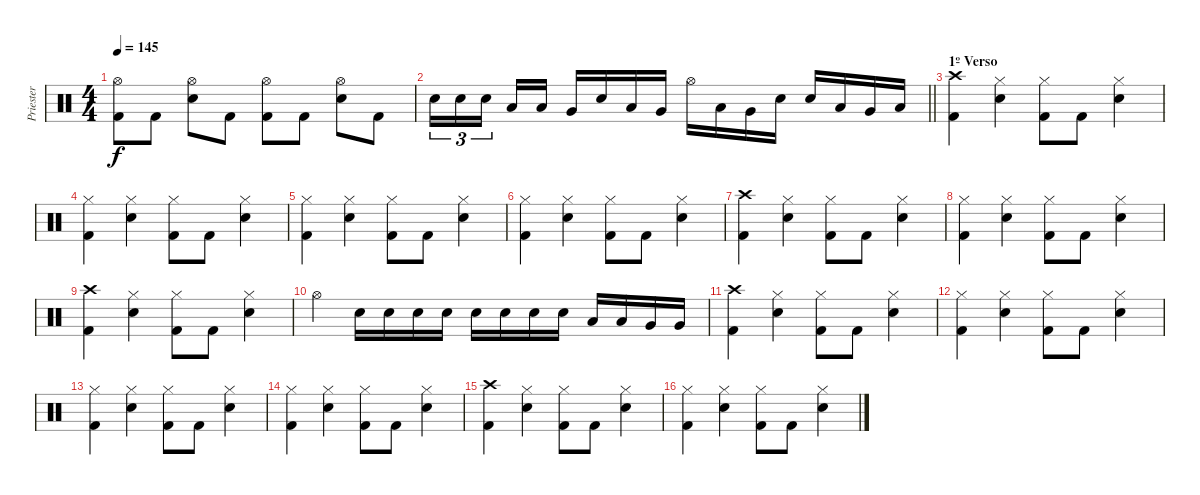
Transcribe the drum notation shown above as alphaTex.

\track ("Priester" "Priester") {instrument percussion}
\staff {score}
\articulation defaults
\ts (4 4)
\tempo 145
\clef neutral
\ks c
("Hi-Hat (open)" "Kick (hit) 2").8{dy f} "Kick (hit) 2".8 ("Hi-Hat (open)" "Electric Snare (hit)").8 "Kick (hit) 2".8 ("Hi-Hat (open)" "Kick (hit) 2").8 "Kick (hit) 2".8 ("Hi-Hat (open)" "Electric Snare (hit)").8 "Kick (hit) 2".8 |
\barLineRight lightlight "Electric Snare (hit)".16{tu (3 2)} "Electric Snare (hit)".16{tu (3 2)} "Electric Snare (hit)".16{tu (3 2) beam splitsecondary} "Low Tom (hit)".16 "Low Tom (hit)".16 "Very Low Tom (hit)".16 "Electric Snare (hit)".16 "Low Tom (hit)".16 "Very Low Tom (hit)".16 "Hi-Hat (open)".16 "Low Tom (hit)".16 "Very Low Tom (hit)".16 "Electric Snare (hit)".16 "Electric Snare (hit)".16 "Low Tom (hit)".16 "Very Low Tom (hit)".16 "Low Floor Tom (hit)".16
|
\section ("" "1º Verso")
("Crash high (hit)" "Kick (hit) 2").4 ("Hi-Hat (closed)" "Electric Snare (hit)").4 ("Hi-Hat (closed)" "Kick (hit) 2").8 "Kick (hit) 2".8 ("Hi-Hat (closed)" "Electric Snare (hit)").4 |
("Hi-Hat (closed)" "Kick (hit) 2").4 ("Hi-Hat (closed)" "Electric Snare (hit)").4 ("Hi-Hat (closed)" "Kick (hit) 2").8 "Kick (hit) 2".8 ("Hi-Hat (closed)" "Electric Snare (hit)").4 |
("Hi-Hat (closed)" "Kick (hit) 2").4 ("Hi-Hat (closed)" "Electric Snare (hit)").4 ("Hi-Hat (closed)" "Kick (hit) 2").8 "Kick (hit) 2".8 ("Hi-Hat (closed)" "Electric Snare (hit)").4 |
("Hi-Hat (closed)" "Kick (hit) 2").4 ("Hi-Hat (closed)" "Electric Snare (hit)").4 ("Hi-Hat (closed)" "Kick (hit) 2").8 "Kick (hit) 2".8 ("Hi-Hat (closed)" "Electric Snare (hit)").4 |
("Crash high (hit)" "Kick (hit) 2").4 ("Hi-Hat (closed)" "Electric Snare (hit)").4 ("Hi-Hat (closed)" "Kick (hit) 2").8 "Kick (hit) 2".8 ("Hi-Hat (closed)" "Electric Snare (hit)").4 |
("Hi-Hat (closed)" "Kick (hit) 2").4 ("Hi-Hat (closed)" "Electric Snare (hit)").4 ("Hi-Hat (closed)" "Kick (hit) 2").8 "Kick (hit) 2".8 ("Hi-Hat (closed)" "Electric Snare (hit)").4 |
("Crash high (hit)" "Kick (hit) 2").4 ("Hi-Hat (closed)" "Electric Snare (hit)").4 ("Hi-Hat (closed)" "Kick (hit) 2").8 "Kick (hit) 2".8 ("Hi-Hat (closed)" "Electric Snare (hit)").4 |
"Hi-Hat (open)".4 "Electric Snare (hit)".16 "Electric Snare (hit)".16 "Electric Snare (hit)".16 "Electric Snare (hit)".16 "Electric Snare (hit)".16 "Electric Snare (hit)".16 "Electric Snare (hit)".16 "Electric Snare (hit)".16 "Low Tom (hit)".16 "Low Tom (hit)".16 "Very Low Tom (hit)".16 "Very Low Tom (hit)".16 |
("Crash high (hit)" "Kick (hit) 2").4 ("Hi-Hat (closed)" "Electric Snare (hit)").4 ("Hi-Hat (closed)" "Kick (hit) 2").8 "Kick (hit) 2".8 ("Hi-Hat (closed)" "Electric Snare (hit)").4 |
("Hi-Hat (closed)" "Kick (hit) 2").4 ("Hi-Hat (closed)" "Electric Snare (hit)").4 ("Hi-Hat (closed)" "Kick (hit) 2").8 "Kick (hit) 2".8 ("Hi-Hat (closed)" "Electric Snare (hit)").4 |
("Hi-Hat (closed)" "Kick (hit) 2").4 ("Hi-Hat (closed)" "Electric Snare (hit)").4 ("Hi-Hat (closed)" "Kick (hit) 2").8 "Kick (hit) 2".8 ("Hi-Hat (closed)" "Electric Snare (hit)").4 |
("Hi-Hat (closed)" "Kick (hit) 2").4 ("Hi-Hat (closed)" "Electric Snare (hit)").4 ("Hi-Hat (closed)" "Kick (hit) 2").8 "Kick (hit) 2".8 ("Hi-Hat (closed)" "Electric Snare (hit)").4 |
("Crash high (hit)" "Kick (hit) 2").4 ("Hi-Hat (closed)" "Electric Snare (hit)").4 ("Hi-Hat (closed)" "Kick (hit) 2").8 "Kick (hit) 2".8 ("Hi-Hat (closed)" "Electric Snare (hit)").4 |
("Hi-Hat (closed)" "Kick (hit) 2").4 ("Hi-Hat (closed)" "Electric Snare (hit)").4 ("Hi-Hat (closed)" "Kick (hit) 2").8 "Kick (hit) 2".8 ("Hi-Hat (closed)" "Electric Snare (hit)").4
